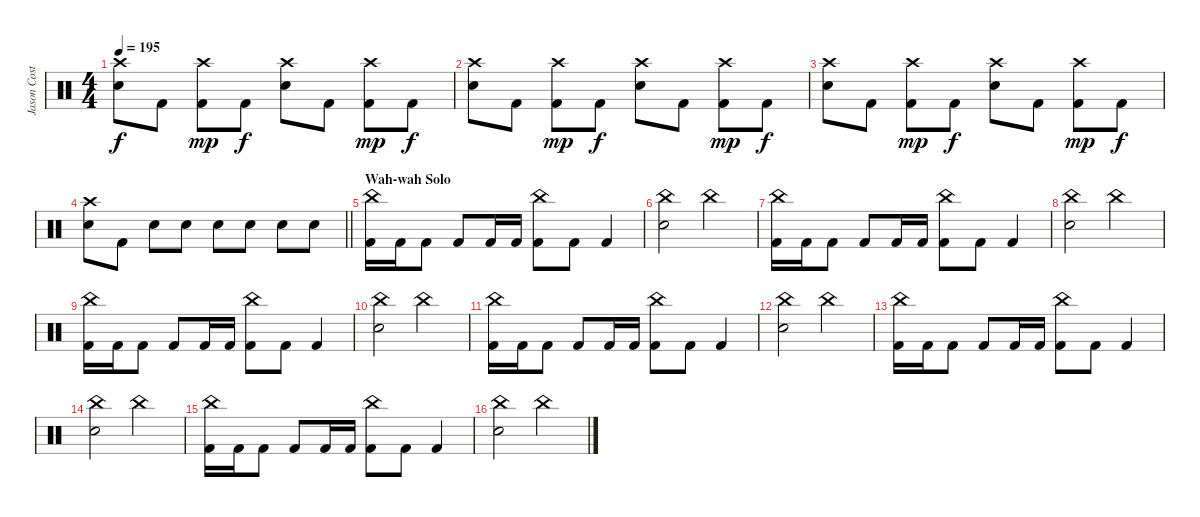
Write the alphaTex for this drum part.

\track ("Jason Costa" "Jason Cost") {instrument percussion}
\staff {score}
\articulation defaults
\ts (4 4)
\tempo 195
\clef neutral
\ks c
("Crash high (hit)" "Electric Snare (hit)").8{dy f} "Kick (hit) 2".8 ("Crash high (hit)" "Kick (hit) 2").8{dy mp} "Kick (hit) 2".8{dy f} ("Crash high (hit)" "Electric Snare (hit)").8 "Kick (hit) 2".8 ("Crash high (hit)" "Kick (hit) 2").8{dy mp} "Kick (hit) 2".8{dy f} |
("Crash high (hit)" "Electric Snare (hit)").8 "Kick (hit) 2".8 ("Crash high (hit)" "Kick (hit) 2").8{dy mp} "Kick (hit) 2".8{dy f} ("Crash high (hit)" "Electric Snare (hit)").8 "Kick (hit) 2".8 ("Crash high (hit)" "Kick (hit) 2").8{dy mp} "Kick (hit) 2".8{dy f} |
("Crash high (hit)" "Electric Snare (hit)").8 "Kick (hit) 2".8 ("Crash high (hit)" "Kick (hit) 2").8{dy mp} "Kick (hit) 2".8{dy f} ("Crash high (hit)" "Electric Snare (hit)").8 "Kick (hit) 2".8 ("Crash high (hit)" "Kick (hit) 2").8{dy mp} "Kick (hit) 2".8{dy f} |
\barLineRight lightlight
("Crash high (hit)" "Electric Snare (hit)").8 "Kick (hit) 2".8 "Electric Snare (hit)".8 "Electric Snare (hit)".8 "Electric Snare (hit)".8 "Electric Snare (hit)".8 "Electric Snare (hit)".8 "Electric Snare (hit)".8 |
\section ("" "Wah-wah Solo ")
("China (hit)" "Kick (hit) 2").16 "Kick (hit) 2".16 "Kick (hit) 2".8 "Kick (hit) 2".8 "Kick (hit) 2".16 "Kick (hit) 2".16 ("China (hit)" "Kick (hit) 2").8 "Kick (hit) 2".8 "Kick (hit) 2".4 |
("China (hit)" "Electric Snare (hit)").2 "China (hit)".2 |
("China (hit)" "Kick (hit) 2").16 "Kick (hit) 2".16 "Kick (hit) 2".8 "Kick (hit) 2".8 "Kick (hit) 2".16 "Kick (hit) 2".16 ("China (hit)" "Kick (hit) 2").8 "Kick (hit) 2".8 "Kick (hit) 2".4 |
("China (hit)" "Electric Snare (hit)").2 "China (hit)".2 |
("China (hit)" "Kick (hit) 2").16 "Kick (hit) 2".16 "Kick (hit) 2".8 "Kick (hit) 2".8 "Kick (hit) 2".16 "Kick (hit) 2".16 ("China (hit)" "Kick (hit) 2").8 "Kick (hit) 2".8 "Kick (hit) 2".4 |
("China (hit)" "Electric Snare (hit)").2 "China (hit)".2 |
("China (hit)" "Kick (hit) 2").16 "Kick (hit) 2".16 "Kick (hit) 2".8 "Kick (hit) 2".8 "Kick (hit) 2".16 "Kick (hit) 2".16 ("China (hit)" "Kick (hit) 2").8 "Kick (hit) 2".8 "Kick (hit) 2".4 |
("China (hit)" "Electric Snare (hit)").2 "China (hit)".2 |
("China (hit)" "Kick (hit) 2").16 "Kick (hit) 2".16 "Kick (hit) 2".8 "Kick (hit) 2".8 "Kick (hit) 2".16 "Kick (hit) 2".16 ("China (hit)" "Kick (hit) 2").8 "Kick (hit) 2".8 "Kick (hit) 2".4 |
("China (hit)" "Electric Snare (hit)").2 "China (hit)".2 |
("China (hit)" "Kick (hit) 2").16 "Kick (hit) 2".16 "Kick (hit) 2".8 "Kick (hit) 2".8 "Kick (hit) 2".16 "Kick (hit) 2".16 ("China (hit)" "Kick (hit) 2").8 "Kick (hit) 2".8 "Kick (hit) 2".4 |
("China (hit)" "Electric Snare (hit)").2 "China (hit)".2
